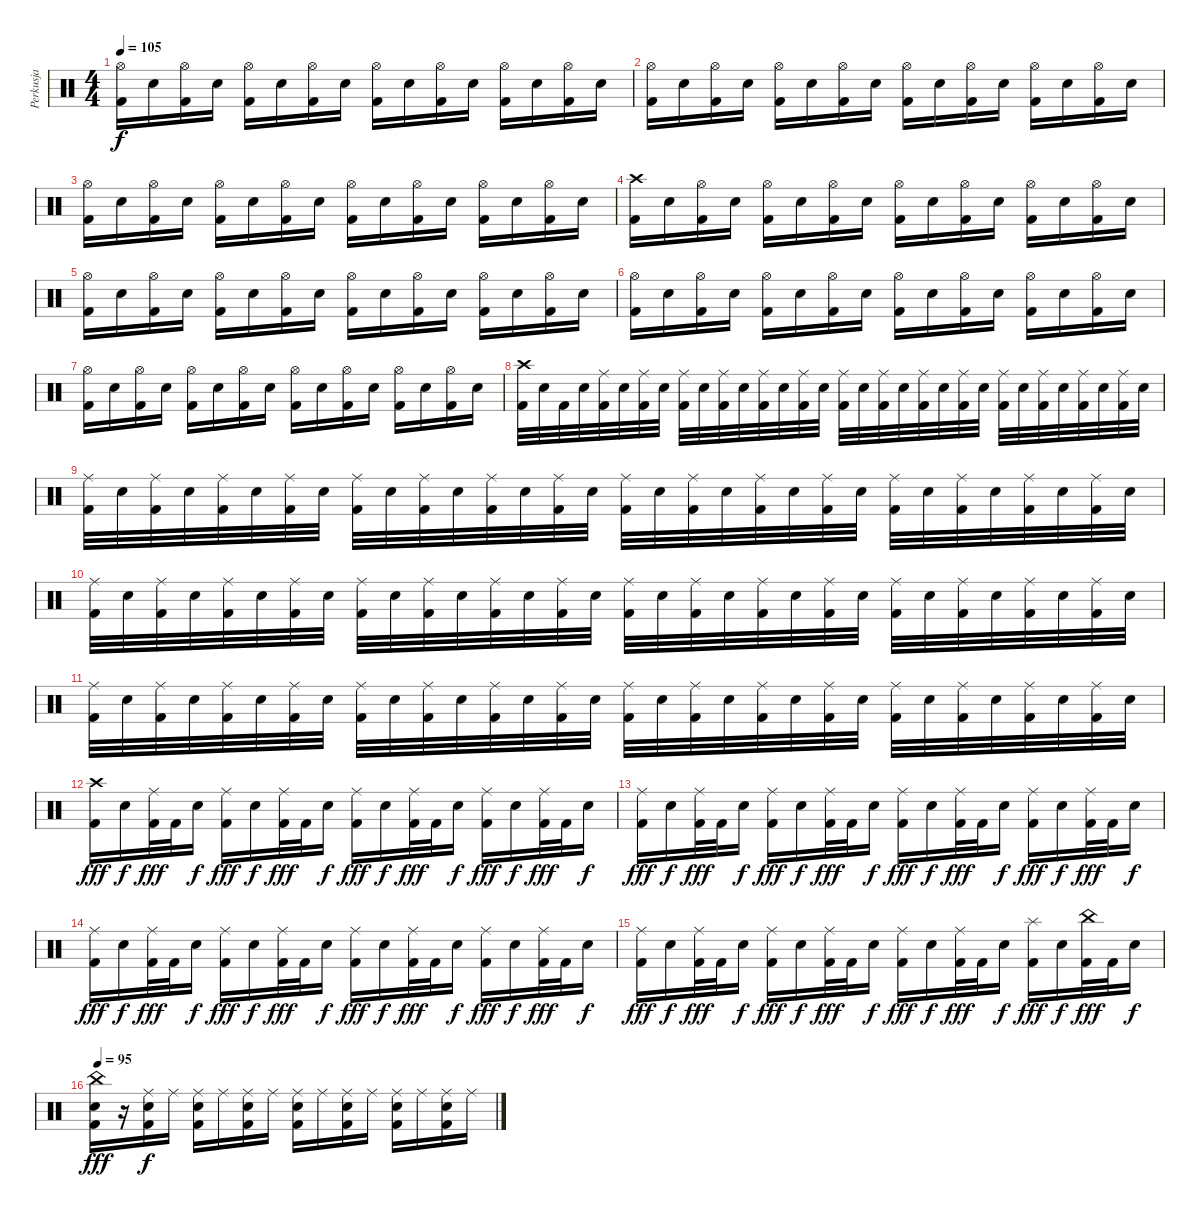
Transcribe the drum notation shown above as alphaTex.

\track ("Perkusja" "Perkusja") {instrument percussion}
\staff {score}
\articulation defaults
\ts (4 4)
\tempo 105
\clef neutral
\ks c
("Hi-Hat (open)" "Kick (hit) 2").16{dy f} "Snare (hit) 2".16 ("Hi-Hat (open)" "Kick (hit) 2").16 "Snare (hit) 2".16 ("Hi-Hat (open)" "Kick (hit) 2").16 "Snare (hit) 2".16 ("Hi-Hat (open)" "Kick (hit) 2").16 "Snare (hit) 2".16 ("Hi-Hat (open)" "Kick (hit) 2").16 "Snare (hit) 2".16 ("Hi-Hat (open)" "Kick (hit) 2").16 "Snare (hit) 2".16 ("Hi-Hat (open)" "Kick (hit) 2").16 "Snare (hit) 2".16 ("Hi-Hat (open)" "Kick (hit) 2").16 "Snare (hit) 2".16 |
("Hi-Hat (open)" "Kick (hit) 2").16 "Snare (hit) 2".16 ("Hi-Hat (open)" "Kick (hit) 2").16 "Snare (hit) 2".16 ("Hi-Hat (open)" "Kick (hit) 2").16 "Snare (hit) 2".16 ("Hi-Hat (open)" "Kick (hit) 2").16 "Snare (hit) 2".16 ("Hi-Hat (open)" "Kick (hit) 2").16 "Snare (hit) 2".16 ("Hi-Hat (open)" "Kick (hit) 2").16 "Snare (hit) 2".16 ("Hi-Hat (open)" "Kick (hit) 2").16 "Snare (hit) 2".16 ("Hi-Hat (open)" "Kick (hit) 2").16 "Snare (hit) 2".16 |
("Hi-Hat (open)" "Kick (hit) 2").16 "Snare (hit) 2".16 ("Hi-Hat (open)" "Kick (hit) 2").16 "Snare (hit) 2".16 ("Hi-Hat (open)" "Kick (hit) 2").16 "Snare (hit) 2".16 ("Hi-Hat (open)" "Kick (hit) 2").16 "Snare (hit) 2".16 ("Hi-Hat (open)" "Kick (hit) 2").16 "Snare (hit) 2".16 ("Hi-Hat (open)" "Kick (hit) 2").16 "Snare (hit) 2".16 ("Hi-Hat (open)" "Kick (hit) 2").16 "Snare (hit) 2".16 ("Hi-Hat (open)" "Kick (hit) 2").16 "Snare (hit) 2".16 |
("Crash high (hit)" "Kick (hit) 2").16 "Snare (hit) 2".16 ("Hi-Hat (open)" "Kick (hit) 2").16 "Snare (hit) 2".16 ("Hi-Hat (open)" "Kick (hit) 2").16 "Snare (hit) 2".16 ("Hi-Hat (open)" "Kick (hit) 2").16 "Snare (hit) 2".16 ("Hi-Hat (open)" "Kick (hit) 2").16 "Snare (hit) 2".16 ("Hi-Hat (open)" "Kick (hit) 2").16 "Snare (hit) 2".16 ("Hi-Hat (open)" "Kick (hit) 2").16 "Snare (hit) 2".16 ("Hi-Hat (open)" "Kick (hit) 2").16 "Snare (hit) 2".16 |
("Hi-Hat (open)" "Kick (hit) 2").16 "Snare (hit) 2".16 ("Hi-Hat (open)" "Kick (hit) 2").16 "Snare (hit) 2".16 ("Hi-Hat (open)" "Kick (hit) 2").16 "Snare (hit) 2".16 ("Hi-Hat (open)" "Kick (hit) 2").16 "Snare (hit) 2".16 ("Hi-Hat (open)" "Kick (hit) 2").16 "Snare (hit) 2".16 ("Hi-Hat (open)" "Kick (hit) 2").16 "Snare (hit) 2".16 ("Hi-Hat (open)" "Kick (hit) 2").16 "Snare (hit) 2".16 ("Hi-Hat (open)" "Kick (hit) 2").16 "Snare (hit) 2".16 |
("Hi-Hat (open)" "Kick (hit) 2").16 "Snare (hit) 2".16 ("Hi-Hat (open)" "Kick (hit) 2").16 "Snare (hit) 2".16 ("Hi-Hat (open)" "Kick (hit) 2").16 "Snare (hit) 2".16 ("Hi-Hat (open)" "Kick (hit) 2").16 "Snare (hit) 2".16 ("Hi-Hat (open)" "Kick (hit) 2").16 "Snare (hit) 2".16 ("Hi-Hat (open)" "Kick (hit) 2").16 "Snare (hit) 2".16 ("Hi-Hat (open)" "Kick (hit) 2").16 "Snare (hit) 2".16 ("Hi-Hat (open)" "Kick (hit) 2").16 "Snare (hit) 2".16 |
("Hi-Hat (open)" "Kick (hit) 2").16 "Snare (hit) 2".16 ("Hi-Hat (open)" "Kick (hit) 2").16 "Snare (hit) 2".16 ("Hi-Hat (open)" "Kick (hit) 2").16 "Snare (hit) 2".16 ("Hi-Hat (open)" "Kick (hit) 2").16 "Snare (hit) 2".16 ("Hi-Hat (open)" "Kick (hit) 2").16 "Snare (hit) 2".16 ("Hi-Hat (open)" "Kick (hit) 2").16 "Snare (hit) 2".16 ("Hi-Hat (open)" "Kick (hit) 2").16 "Snare (hit) 2".16 ("Hi-Hat (open)" "Kick (hit) 2").16 "Snare (hit) 2".16 |
("Crash high (hit)" "Kick (hit) 2").32 "Snare (hit) 2".32 "Kick (hit) 2".32 "Snare (hit) 2".32 ("Ride (middle)" "Kick (hit) 2").32 "Snare (hit) 2".32 ("Ride (middle)" "Kick (hit) 2").32 "Snare (hit) 2".32 ("Ride (middle)" "Kick (hit) 2").32 "Snare (hit) 2".32 ("Ride (middle)" "Kick (hit) 2").32 "Snare (hit) 2".32 ("Ride (middle)" "Kick (hit) 2").32 "Snare (hit) 2".32 ("Ride (middle)" "Kick (hit) 2").32 "Snare (hit) 2".32 ("Ride (middle)" "Kick (hit) 2").32 "Snare (hit) 2".32 ("Ride (middle)" "Kick (hit) 2").32 "Snare (hit) 2".32 ("Ride (middle)" "Kick (hit) 2").32 "Snare (hit) 2".32 ("Ride (middle)" "Kick (hit) 2").32 "Snare (hit) 2".32 ("Ride (middle)" "Kick (hit) 2").32 "Snare (hit) 2".32 ("Ride (middle)" "Kick (hit) 2").32 "Snare (hit) 2".32 ("Ride (middle)" "Kick (hit) 2").32 "Snare (hit) 2".32 ("Ride (middle)" "Kick (hit) 2").32 "Snare (hit) 2".32 |
("Ride (middle)" "Kick (hit) 2").32 "Snare (hit) 2".32 ("Ride (middle)" "Kick (hit) 2").32 "Snare (hit) 2".32 ("Ride (middle)" "Kick (hit) 2").32 "Snare (hit) 2".32 ("Ride (middle)" "Kick (hit) 2").32 "Snare (hit) 2".32 ("Ride (middle)" "Kick (hit) 2").32 "Snare (hit) 2".32 ("Ride (middle)" "Kick (hit) 2").32 "Snare (hit) 2".32 ("Ride (middle)" "Kick (hit) 2").32 "Snare (hit) 2".32 ("Ride (middle)" "Kick (hit) 2").32 "Snare (hit) 2".32 ("Ride (middle)" "Kick (hit) 2").32 "Snare (hit) 2".32 ("Ride (middle)" "Kick (hit) 2").32 "Snare (hit) 2".32 ("Ride (middle)" "Kick (hit) 2").32 "Snare (hit) 2".32 ("Ride (middle)" "Kick (hit) 2").32 "Snare (hit) 2".32 ("Ride (middle)" "Kick (hit) 2").32 "Snare (hit) 2".32 ("Ride (middle)" "Kick (hit) 2").32 "Snare (hit) 2".32 ("Ride (middle)" "Kick (hit) 2").32 "Snare (hit) 2".32 ("Ride (middle)" "Kick (hit) 2").32 "Snare (hit) 2".32 |
("Ride (middle)" "Kick (hit) 2").32 "Snare (hit) 2".32 ("Ride (middle)" "Kick (hit) 2").32 "Snare (hit) 2".32 ("Ride (middle)" "Kick (hit) 2").32 "Snare (hit) 2".32 ("Ride (middle)" "Kick (hit) 2").32 "Snare (hit) 2".32 ("Ride (middle)" "Kick (hit) 2").32 "Snare (hit) 2".32 ("Ride (middle)" "Kick (hit) 2").32 "Snare (hit) 2".32 ("Ride (middle)" "Kick (hit) 2").32 "Snare (hit) 2".32 ("Ride (middle)" "Kick (hit) 2").32 "Snare (hit) 2".32 ("Ride (middle)" "Kick (hit) 2").32 "Snare (hit) 2".32 ("Ride (middle)" "Kick (hit) 2").32 "Snare (hit) 2".32 ("Ride (middle)" "Kick (hit) 2").32 "Snare (hit) 2".32 ("Ride (middle)" "Kick (hit) 2").32 "Snare (hit) 2".32 ("Ride (middle)" "Kick (hit) 2").32 "Snare (hit) 2".32 ("Ride (middle)" "Kick (hit) 2").32 "Snare (hit) 2".32 ("Ride (middle)" "Kick (hit) 2").32 "Snare (hit) 2".32 ("Ride (middle)" "Kick (hit) 2").32 "Snare (hit) 2".32 |
("Ride (middle)" "Kick (hit) 2").32 "Snare (hit) 2".32 ("Ride (middle)" "Kick (hit) 2").32 "Snare (hit) 2".32 ("Ride (middle)" "Kick (hit) 2").32 "Snare (hit) 2".32 ("Ride (middle)" "Kick (hit) 2").32 "Snare (hit) 2".32 ("Ride (middle)" "Kick (hit) 2").32 "Snare (hit) 2".32 ("Ride (middle)" "Kick (hit) 2").32 "Snare (hit) 2".32 ("Ride (middle)" "Kick (hit) 2").32 "Snare (hit) 2".32 ("Ride (middle)" "Kick (hit) 2").32 "Snare (hit) 2".32 ("Ride (middle)" "Kick (hit) 2").32 "Snare (hit) 2".32 ("Ride (middle)" "Kick (hit) 2").32 "Snare (hit) 2".32 ("Ride (middle)" "Kick (hit) 2").32 "Snare (hit) 2".32 ("Ride (middle)" "Kick (hit) 2").32 "Snare (hit) 2".32 ("Ride (middle)" "Kick (hit) 2").32 "Snare (hit) 2".32 ("Ride (middle)" "Kick (hit) 2").32 "Snare (hit) 2".32 ("Ride (middle)" "Kick (hit) 2").32 "Snare (hit) 2".32 ("Ride (middle)" "Kick (hit) 2").32 "Snare (hit) 2".32 |
("Crash high (hit)" "Kick (hit) 2").16{dy fff} "Snare (hit) 2".16{dy f} ("Ride (middle)" "Kick (hit) 2").32{dy fff} "Kick (hit) 2".32 "Snare (hit) 2".16{dy f} ("Ride (middle)" "Kick (hit) 2").16{dy fff} "Snare (hit) 2".16{dy f} ("Ride (middle)" "Kick (hit) 2").32{dy fff} "Kick (hit) 2".32 "Snare (hit) 2".16{dy f} ("Ride (middle)" "Kick (hit) 2").16{dy fff} "Snare (hit) 2".16{dy f} ("Ride (middle)" "Kick (hit) 2").32{dy fff} "Kick (hit) 2".32 "Snare (hit) 2".16{dy f} ("Ride (middle)" "Kick (hit) 2").16{dy fff} "Snare (hit) 2".16{dy f} ("Ride (middle)" "Kick (hit) 2").32{dy fff} "Kick (hit) 2".32 "Snare (hit) 2".16{dy f} |
("Ride (middle)" "Kick (hit) 2").16{dy fff} "Snare (hit) 2".16{dy f} ("Ride (middle)" "Kick (hit) 2").32{dy fff} "Kick (hit) 2".32 "Snare (hit) 2".16{dy f} ("Ride (middle)" "Kick (hit) 2").16{dy fff} "Snare (hit) 2".16{dy f} ("Ride (middle)" "Kick (hit) 2").32{dy fff} "Kick (hit) 2".32 "Snare (hit) 2".16{dy f} ("Ride (middle)" "Kick (hit) 2").16{dy fff} "Snare (hit) 2".16{dy f} ("Ride (middle)" "Kick (hit) 2").32{dy fff} "Kick (hit) 2".32 "Snare (hit) 2".16{dy f} ("Ride (middle)" "Kick (hit) 2").16{dy fff} "Snare (hit) 2".16{dy f} ("Ride (middle)" "Kick (hit) 2").32{dy fff} "Kick (hit) 2".32 "Snare (hit) 2".16{dy f} |
("Ride (middle)" "Kick (hit) 2").16{dy fff} "Snare (hit) 2".16{dy f} ("Ride (middle)" "Kick (hit) 2").32{dy fff} "Kick (hit) 2".32 "Snare (hit) 2".16{dy f} ("Ride (middle)" "Kick (hit) 2").16{dy fff} "Snare (hit) 2".16{dy f} ("Ride (middle)" "Kick (hit) 2").32{dy fff} "Kick (hit) 2".32 "Snare (hit) 2".16{dy f} ("Ride (middle)" "Kick (hit) 2").16{dy fff} "Snare (hit) 2".16{dy f} ("Ride (middle)" "Kick (hit) 2").32{dy fff} "Kick (hit) 2".32 "Snare (hit) 2".16{dy f} ("Ride (middle)" "Kick (hit) 2").16{dy fff} "Snare (hit) 2".16{dy f} ("Ride (middle)" "Kick (hit) 2").32{dy fff} "Kick (hit) 2".32 "Snare (hit) 2".16{dy f} |
("Ride (middle)" "Kick (hit) 2").16{dy fff} "Snare (hit) 2".16{dy f} ("Ride (middle)" "Kick (hit) 2").32{dy fff} "Kick (hit) 2".32 "Snare (hit) 2".16{dy f} ("Ride (middle)" "Kick (hit) 2").16{dy fff} "Snare (hit) 2".16{dy f} ("Ride (middle)" "Kick (hit) 2").32{dy fff} "Kick (hit) 2".32 "Snare (hit) 2".16{dy f} ("Ride (middle)" "Kick (hit) 2").16{dy fff} "Snare (hit) 2".16{dy f} ("Ride (middle)" "Kick (hit) 2").32{dy fff} "Kick (hit) 2".32 "Snare (hit) 2".16{dy f} ("Splash (hit)" "Kick (hit) 2").16{dy fff} "Snare (hit) 2".16{dy f} ("China (hit)" "Kick (hit) 2").32{dy fff} "Kick (hit) 2".32 "Snare (hit) 2".16{dy f} |
\tempo 95
("China (hit)" "Snare (hit) 2" "Kick (hit) 2").16{dy fff} r.16 ("Ride (middle)" "Snare (hit) 2" "Kick (hit) 2").16{dy f} "Ride (middle)".16 ("Ride (middle)" "Snare (hit) 2" "Kick (hit) 2").16 "Ride (middle)".16 ("Ride (middle)" "Snare (hit) 2" "Kick (hit) 2").16 "Ride (middle)".16 ("Ride (middle)" "Snare (hit) 2" "Kick (hit) 2").16 "Ride (middle)".16 ("Ride (middle)" "Snare (hit) 2" "Kick (hit) 2").16 "Ride (middle)".16 ("Ride (middle)" "Snare (hit) 2" "Kick (hit) 2").16 "Ride (middle)".16 ("Ride (middle)" "Snare (hit) 2" "Kick (hit) 2").16 "Ride (middle)".16
